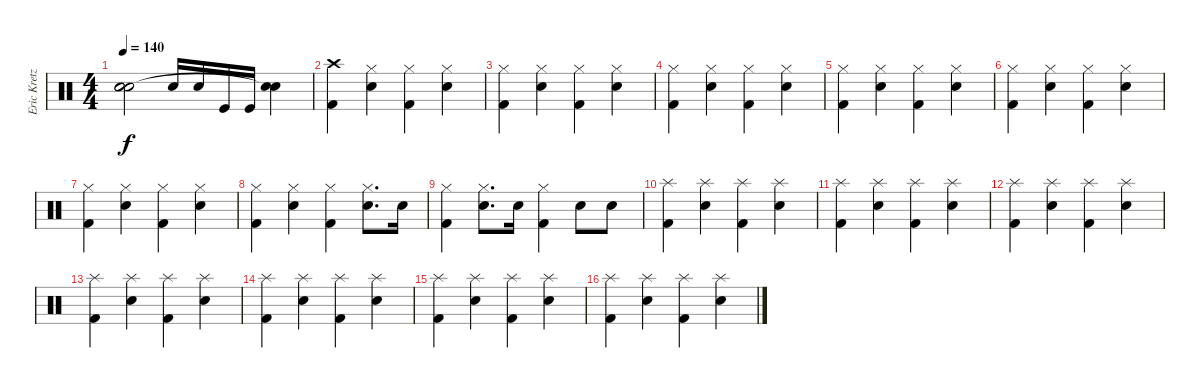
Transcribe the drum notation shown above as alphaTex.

\track ("Eric Kretz" "Eric Kretz") {instrument percussion}
\staff {score}
\articulation defaults
\ts (4 4)
\tempo 140
\clef neutral
\ks c
("Snare (hit)"{t} "Snare (hit)"{t} "Snare (hit)"{t}).2{dy f} "Snare (hit) 2".16 "Snare (hit) 2".16 "Kick (hit)".16 "Kick (hit)".16 ("Snare (hit) 2" "Snare (hit)"{t}).4 |
("Kick (hit) 2" "Crash high (hit)").4 ("Snare (hit) 2" "Hi-Hat (closed)").4 ("Kick (hit) 2" "Hi-Hat (closed)").4 ("Snare (hit) 2" "Hi-Hat (closed)").4 |
("Kick (hit) 2" "Hi-Hat (closed)").4 ("Snare (hit) 2" "Hi-Hat (closed)").4 ("Kick (hit) 2" "Hi-Hat (closed)").4 ("Snare (hit) 2" "Hi-Hat (closed)").4 |
("Kick (hit) 2" "Hi-Hat (closed)").4 ("Snare (hit) 2" "Hi-Hat (closed)").4 ("Kick (hit) 2" "Hi-Hat (closed)").4 ("Snare (hit) 2" "Hi-Hat (closed)").4 |
("Kick (hit) 2" "Hi-Hat (closed)").4 ("Snare (hit) 2" "Hi-Hat (closed)").4 ("Kick (hit) 2" "Hi-Hat (closed)").4 ("Snare (hit) 2" "Hi-Hat (closed)").4 |
("Kick (hit) 2" "Hi-Hat (closed)").4 ("Snare (hit) 2" "Hi-Hat (closed)").4 ("Kick (hit) 2" "Hi-Hat (closed)").4 ("Snare (hit) 2" "Hi-Hat (closed)").4 |
("Kick (hit) 2" "Hi-Hat (closed)").4 ("Snare (hit) 2" "Hi-Hat (closed)").4 ("Kick (hit) 2" "Hi-Hat (closed)").4 ("Snare (hit) 2" "Hi-Hat (closed)").4 |
("Kick (hit) 2" "Hi-Hat (closed)").4 ("Snare (hit) 2" "Hi-Hat (closed)").4 ("Kick (hit) 2" "Hi-Hat (closed)").4 ("Snare (hit) 2" "Hi-Hat (closed)").8{d} "Snare (hit) 2".16 |
("Kick (hit) 2" "Hi-Hat (closed)").4 ("Snare (hit) 2" "Hi-Hat (closed)").8{d} "Snare (hit) 2".16 ("Kick (hit) 2" "Hi-Hat (closed)").4 "Snare (hit) 2".8 "Snare (hit) 2".8 |
("Kick (hit) 2" "Splash (hit)").4 ("Snare (hit) 2" "Splash (hit)").4 ("Kick (hit) 2" "Splash (hit)").4 ("Snare (hit) 2" "Splash (hit)").4 |
("Splash (hit)" "Kick (hit) 2").4 ("Splash (hit)" "Snare (hit) 2").4 ("Splash (hit)" "Kick (hit) 2").4 ("Splash (hit)" "Snare (hit) 2").4 |
("Kick (hit) 2" "Splash (hit)").4 ("Snare (hit) 2" "Splash (hit)").4 ("Kick (hit) 2" "Splash (hit)").4 ("Snare (hit) 2" "Splash (hit)").4 |
("Splash (hit)" "Kick (hit) 2").4 ("Splash (hit)" "Snare (hit) 2").4 ("Splash (hit)" "Kick (hit) 2").4 ("Splash (hit)" "Snare (hit) 2").4 |
("Kick (hit) 2" "Splash (hit)").4 ("Snare (hit) 2" "Splash (hit)").4 ("Kick (hit) 2" "Splash (hit)").4 ("Snare (hit) 2" "Splash (hit)").4 |
("Splash (hit)" "Kick (hit) 2").4 ("Splash (hit)" "Snare (hit) 2").4 ("Splash (hit)" "Kick (hit) 2").4 ("Splash (hit)" "Snare (hit) 2").4 |
("Kick (hit) 2" "Splash (hit)").4 ("Snare (hit) 2" "Splash (hit)").4 ("Kick (hit) 2" "Splash (hit)").4 ("Snare (hit) 2" "Splash (hit)").4
